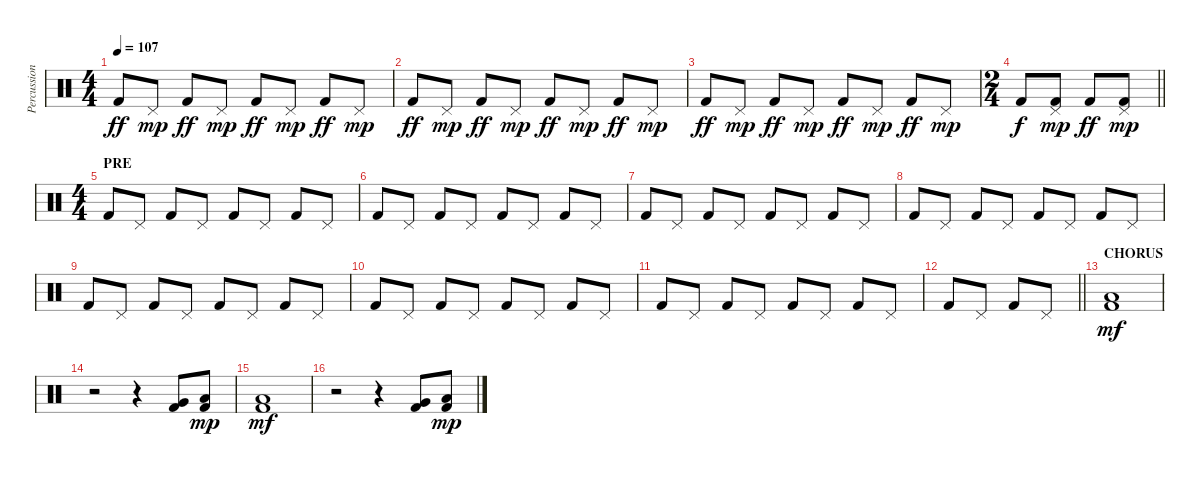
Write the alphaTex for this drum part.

\track ("Percussion" "Percussion") {instrument percussion}
\staff {score}
\articulation defaults
\ts (4 4)
\tempo 107
\clef neutral
\ks c "Kick (hit) 2".8{dy ff} "Pedal Hi-Hat (hit)".8{dy mp} "Kick (hit) 2".8{dy ff} "Pedal Hi-Hat (hit)".8{dy mp} "Kick (hit) 2".8{dy ff} "Pedal Hi-Hat (hit)".8{dy mp} "Kick (hit) 2".8{dy ff} "Pedal Hi-Hat (hit)".8{dy mp}
|
"Kick (hit) 2".8{dy ff} "Pedal Hi-Hat (hit)".8{dy mp} "Kick (hit) 2".8{dy ff} "Pedal Hi-Hat (hit)".8{dy mp} "Kick (hit) 2".8{dy ff} "Pedal Hi-Hat (hit)".8{dy mp} "Kick (hit) 2".8{dy ff} "Pedal Hi-Hat (hit)".8{dy mp} |
"Kick (hit) 2".8{dy ff} "Pedal Hi-Hat (hit)".8{dy mp} "Kick (hit) 2".8{dy ff} "Pedal Hi-Hat (hit)".8{dy mp} "Kick (hit) 2".8{dy ff} "Pedal Hi-Hat (hit)".8{dy mp} "Kick (hit) 2".8{dy ff} "Pedal Hi-Hat (hit)".8{dy mp} |
\ts (2 4)
\barLineRight lightlight "Kick (hit) 2".8{dy f}
("Kick (hit) 2" "Pedal Hi-Hat (hit)").8{dy mp} "Kick (hit) 2".8{dy ff} ("Kick (hit) 2" "Pedal Hi-Hat (hit)").8{dy mp} |
\ts (4 4)
\section ("" "PRE")
"Kick (hit) 2".8 "Pedal Hi-Hat (hit)".8 "Kick (hit) 2".8 "Pedal Hi-Hat (hit)".8 "Kick (hit) 2".8 "Pedal Hi-Hat (hit)".8 "Kick (hit) 2".8 "Pedal Hi-Hat (hit)".8 |
"Kick (hit) 2".8 "Pedal Hi-Hat (hit)".8 "Kick (hit) 2".8 "Pedal Hi-Hat (hit)".8 "Kick (hit) 2".8 "Pedal Hi-Hat (hit)".8 "Kick (hit) 2".8 "Pedal Hi-Hat (hit)".8 |
"Kick (hit) 2".8 "Pedal Hi-Hat (hit)".8 "Kick (hit) 2".8 "Pedal Hi-Hat (hit)".8 "Kick (hit) 2".8 "Pedal Hi-Hat (hit)".8 "Kick (hit) 2".8 "Pedal Hi-Hat (hit)".8 |
"Kick (hit) 2".8 "Pedal Hi-Hat (hit)".8 "Kick (hit) 2".8 "Pedal Hi-Hat (hit)".8 "Kick (hit) 2".8 "Pedal Hi-Hat (hit)".8 "Kick (hit) 2".8 "Pedal Hi-Hat (hit)".8 |
"Kick (hit) 2".8 "Pedal Hi-Hat (hit)".8 "Kick (hit) 2".8 "Pedal Hi-Hat (hit)".8 "Kick (hit) 2".8 "Pedal Hi-Hat (hit)".8 "Kick (hit) 2".8 "Pedal Hi-Hat (hit)".8 |
"Kick (hit) 2".8 "Pedal Hi-Hat (hit)".8 "Kick (hit) 2".8 "Pedal Hi-Hat (hit)".8 "Kick (hit) 2".8 "Pedal Hi-Hat (hit)".8 "Kick (hit) 2".8 "Pedal Hi-Hat (hit)".8 |
"Kick (hit) 2".8 "Pedal Hi-Hat (hit)".8 "Kick (hit) 2".8 "Pedal Hi-Hat (hit)".8 "Kick (hit) 2".8 "Pedal Hi-Hat (hit)".8 "Kick (hit) 2".8 "Pedal Hi-Hat (hit)".8 |
\barLineRight lightlight "Kick (hit) 2".8 "Pedal Hi-Hat (hit)".8 "Kick (hit) 2".8 "Pedal Hi-Hat (hit)".8
|
\section ("" "CHORUS")
("Kick (hit) 2" "Low Floor Tom (hit)").1{dy mf} |
r.2 r.4 ("Kick (hit) 2" "Very Low Tom (hit)").8 ("Kick (hit) 2" "Low Floor Tom (hit)").8{dy mp} |
("Kick (hit) 2" "Low Floor Tom (hit)").1{dy mf} |
r.2 r.4 ("Kick (hit) 2" "Very Low Tom (hit)").8 ("Kick (hit) 2" "Low Floor Tom (hit)").8{dy mp}
